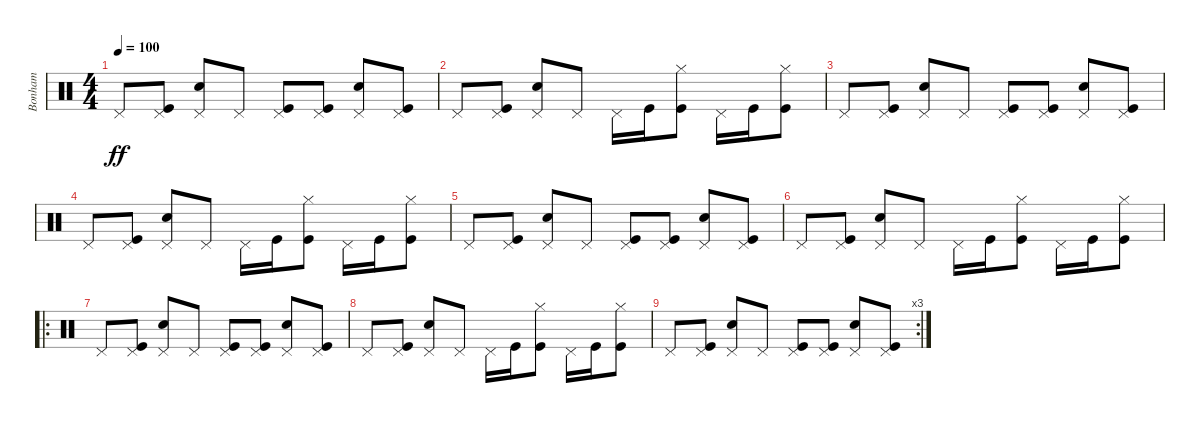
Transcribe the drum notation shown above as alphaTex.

\track ("Bonham" "Bonham") {instrument percussion}
\staff {score}
\articulation defaults
\ts (4 4)
\tempo 100
\clef neutral
\ks c "Pedal Hi-Hat (hit)".8{dy ff}
("Kick (hit)" "Pedal Hi-Hat (hit)").8 ("Snare (hit) 2" "Pedal Hi-Hat (hit)").8 "Pedal Hi-Hat (hit)".8 ("Kick (hit)" "Pedal Hi-Hat (hit)").8 ("Kick (hit)" "Pedal Hi-Hat (hit)").8 ("Snare (hit) 2" "Pedal Hi-Hat (hit)").8 ("Kick (hit)" "Pedal Hi-Hat (hit)").8 |
"Pedal Hi-Hat (hit)".8 ("Kick (hit)" "Pedal Hi-Hat (hit)").8 ("Snare (hit) 2" "Pedal Hi-Hat (hit)").8 "Pedal Hi-Hat (hit)".8 "Pedal Hi-Hat (hit)".16 "Kick (hit)".16 ("Kick (hit)" "Hi-Hat (closed)").8 "Pedal Hi-Hat (hit)".16 "Kick (hit)".16 ("Kick (hit)" "Hi-Hat (closed)").8 |
"Pedal Hi-Hat (hit)".8 ("Kick (hit)" "Pedal Hi-Hat (hit)").8 ("Snare (hit) 2" "Pedal Hi-Hat (hit)").8 "Pedal Hi-Hat (hit)".8 ("Kick (hit)" "Pedal Hi-Hat (hit)").8 ("Kick (hit)" "Pedal Hi-Hat (hit)").8 ("Snare (hit) 2" "Pedal Hi-Hat (hit)").8 ("Kick (hit)" "Pedal Hi-Hat (hit)").8 |
"Pedal Hi-Hat (hit)".8 ("Kick (hit)" "Pedal Hi-Hat (hit)").8 ("Snare (hit) 2" "Pedal Hi-Hat (hit)").8 "Pedal Hi-Hat (hit)".8 "Pedal Hi-Hat (hit)".16 "Kick (hit)".16 ("Kick (hit)" "Hi-Hat (closed)").8 "Pedal Hi-Hat (hit)".16 "Kick (hit)".16 ("Kick (hit)" "Hi-Hat (closed)").8 |
"Pedal Hi-Hat (hit)".8 ("Kick (hit)" "Pedal Hi-Hat (hit)").8 ("Snare (hit) 2" "Pedal Hi-Hat (hit)").8 "Pedal Hi-Hat (hit)".8 ("Kick (hit)" "Pedal Hi-Hat (hit)").8 ("Kick (hit)" "Pedal Hi-Hat (hit)").8 ("Snare (hit) 2" "Pedal Hi-Hat (hit)").8 ("Kick (hit)" "Pedal Hi-Hat (hit)").8 |
"Pedal Hi-Hat (hit)".8 ("Kick (hit)" "Pedal Hi-Hat (hit)").8 ("Snare (hit) 2" "Pedal Hi-Hat (hit)").8 "Pedal Hi-Hat (hit)".8 "Pedal Hi-Hat (hit)".16 "Kick (hit)".16 ("Kick (hit)" "Hi-Hat (closed)").8 "Pedal Hi-Hat (hit)".16 "Kick (hit)".16 ("Kick (hit)" "Hi-Hat (closed)").8 |
\ro "Pedal Hi-Hat (hit)".8
("Kick (hit)" "Pedal Hi-Hat (hit)").8 ("Snare (hit) 2" "Pedal Hi-Hat (hit)").8 "Pedal Hi-Hat (hit)".8 ("Kick (hit)" "Pedal Hi-Hat (hit)").8 ("Kick (hit)" "Pedal Hi-Hat (hit)").8 ("Snare (hit) 2" "Pedal Hi-Hat (hit)").8 ("Kick (hit)" "Pedal Hi-Hat (hit)").8 |
"Pedal Hi-Hat (hit)".8 ("Kick (hit)" "Pedal Hi-Hat (hit)").8 ("Snare (hit) 2" "Pedal Hi-Hat (hit)").8 "Pedal Hi-Hat (hit)".8 "Pedal Hi-Hat (hit)".16 "Kick (hit)".16 ("Kick (hit)" "Hi-Hat (closed)").8 "Pedal Hi-Hat (hit)".16 "Kick (hit)".16 ("Kick (hit)" "Hi-Hat (closed)").8 |
\rc 3 "Pedal Hi-Hat (hit)".8
("Kick (hit)" "Pedal Hi-Hat (hit)").8 ("Snare (hit) 2" "Pedal Hi-Hat (hit)").8 "Pedal Hi-Hat (hit)".8 ("Kick (hit)" "Pedal Hi-Hat (hit)").8 ("Kick (hit)" "Pedal Hi-Hat (hit)").8 ("Snare (hit) 2" "Pedal Hi-Hat (hit)").8 ("Kick (hit)" "Pedal Hi-Hat (hit)").8
